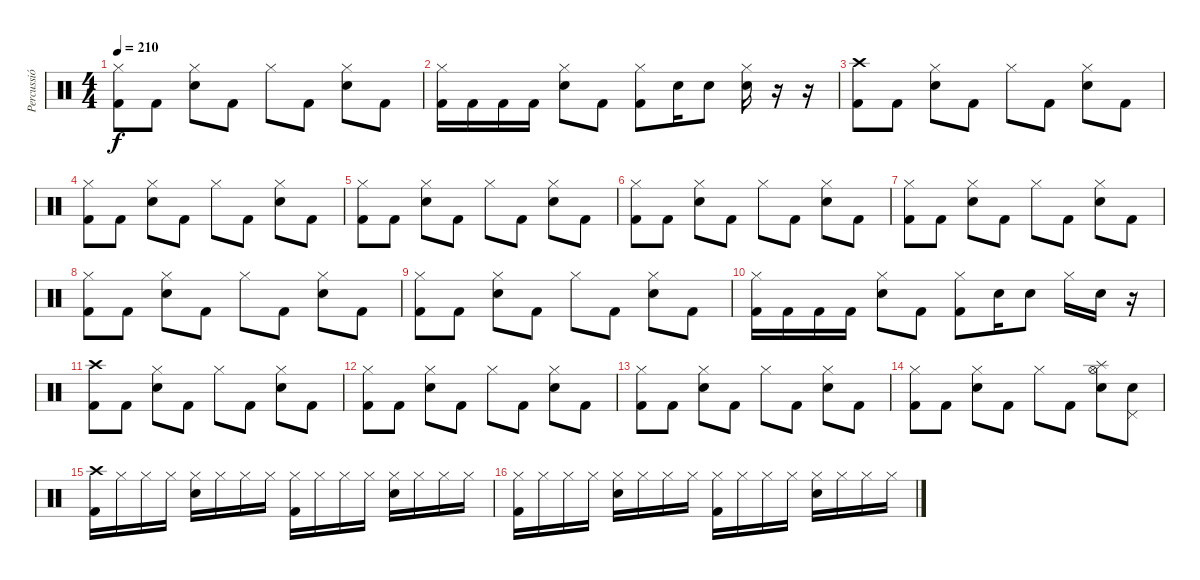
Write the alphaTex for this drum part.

\track ("Percussió" "Percussió") {instrument percussion}
\staff {score}
\articulation defaults
\ts (4 4)
\tempo 210
\clef neutral
\ks c
("Hi-Hat (closed)" "Kick (hit) 2").8{dy f} "Kick (hit) 2".8 ("Hi-Hat (closed)" "Snare (hit) 2").8 "Kick (hit) 2".8 "Hi-Hat (closed)".8 "Kick (hit) 2".8 ("Hi-Hat (closed)" "Snare (hit) 2").8 "Kick (hit) 2".8 |
("Hi-Hat (closed)" "Kick (hit) 2").16 "Kick (hit) 2".16 "Kick (hit) 2".16 "Kick (hit) 2".16 ("Hi-Hat (closed)" "Snare (hit) 2").8 "Kick (hit) 2".8 ("Hi-Hat (closed)" "Kick (hit) 2").8 "Snare (hit) 2".16 "Snare (hit) 2".8 ("Hi-Hat (closed)" "Snare (hit) 2").16 r.16 r.16 |
("Crash high (hit)" "Kick (hit) 2").8 "Kick (hit) 2".8 ("Hi-Hat (closed)" "Snare (hit) 2").8 "Kick (hit) 2".8 "Hi-Hat (closed)".8 "Kick (hit) 2".8 ("Hi-Hat (closed)" "Snare (hit) 2").8 "Kick (hit) 2".8 |
("Hi-Hat (closed)" "Kick (hit) 2").8 "Kick (hit) 2".8 ("Hi-Hat (closed)" "Snare (hit) 2").8 "Kick (hit) 2".8 "Hi-Hat (closed)".8 "Kick (hit) 2".8 ("Hi-Hat (closed)" "Snare (hit) 2").8 "Kick (hit) 2".8 |
("Hi-Hat (closed)" "Kick (hit) 2").8 "Kick (hit) 2".8 ("Hi-Hat (closed)" "Snare (hit) 2").8 "Kick (hit) 2".8 "Hi-Hat (closed)".8 "Kick (hit) 2".8 ("Hi-Hat (closed)" "Snare (hit) 2").8 "Kick (hit) 2".8 |
("Hi-Hat (closed)" "Kick (hit) 2").8 "Kick (hit) 2".8 ("Hi-Hat (closed)" "Snare (hit) 2").8 "Kick (hit) 2".8 "Hi-Hat (closed)".8 "Kick (hit) 2".8 ("Hi-Hat (closed)" "Snare (hit) 2").8 "Kick (hit) 2".8 |
("Hi-Hat (closed)" "Kick (hit) 2").8 "Kick (hit) 2".8 ("Hi-Hat (closed)" "Snare (hit) 2").8 "Kick (hit) 2".8 "Hi-Hat (closed)".8 "Kick (hit) 2".8 ("Hi-Hat (closed)" "Snare (hit) 2").8 "Kick (hit) 2".8 |
("Hi-Hat (closed)" "Kick (hit) 2").8 "Kick (hit) 2".8 ("Hi-Hat (closed)" "Snare (hit) 2").8 "Kick (hit) 2".8 "Hi-Hat (closed)".8 "Kick (hit) 2".8 ("Hi-Hat (closed)" "Snare (hit) 2").8 "Kick (hit) 2".8 |
("Hi-Hat (closed)" "Kick (hit) 2").8 "Kick (hit) 2".8 ("Hi-Hat (closed)" "Snare (hit) 2").8 "Kick (hit) 2".8 "Hi-Hat (closed)".8 "Kick (hit) 2".8 ("Hi-Hat (closed)" "Snare (hit) 2").8 "Kick (hit) 2".8 |
("Hi-Hat (closed)" "Kick (hit) 2").16 "Kick (hit) 2".16 "Kick (hit) 2".16 "Kick (hit) 2".16 ("Hi-Hat (closed)" "Snare (hit) 2").8 "Kick (hit) 2".8 ("Hi-Hat (closed)" "Kick (hit) 2").8 "Snare (hit) 2".16 "Snare (hit) 2".8 "Hi-Hat (closed)".16 "Snare (hit) 2".16 r.16 |
("Crash high (hit)" "Kick (hit) 2").8 "Kick (hit) 2".8 ("Hi-Hat (closed)" "Snare (hit) 2").8 "Kick (hit) 2".8 "Hi-Hat (closed)".8 "Kick (hit) 2".8 ("Hi-Hat (closed)" "Snare (hit) 2").8 "Kick (hit) 2".8 |
("Hi-Hat (closed)" "Kick (hit) 2").8 "Kick (hit) 2".8 ("Hi-Hat (closed)" "Snare (hit) 2").8 "Kick (hit) 2".8 "Hi-Hat (closed)".8 "Kick (hit) 2".8 ("Hi-Hat (closed)" "Snare (hit) 2").8 "Kick (hit) 2".8 |
("Hi-Hat (closed)" "Kick (hit) 2").8 "Kick (hit) 2".8 ("Hi-Hat (closed)" "Snare (hit) 2").8 "Kick (hit) 2".8 "Hi-Hat (closed)".8 "Kick (hit) 2".8 ("Hi-Hat (closed)" "Snare (hit) 2").8 "Kick (hit) 2".8 |
("Hi-Hat (closed)" "Kick (hit) 2").8 "Kick (hit) 2".8 ("Hi-Hat (closed)" "Snare (hit) 2").8 "Kick (hit) 2".8 "Hi-Hat (closed)".8 "Kick (hit) 2".8 ("Splash (hit)" "Hi-Hat (open)" "Snare (hit) 2").8 ("Pedal Hi-Hat (hit)" "Snare (hit) 2").8 |
("Crash high (hit)" "Kick (hit) 2").16 "Hi-Hat (closed)".16 "Hi-Hat (closed)".16 "Hi-Hat (closed)".16 ("Hi-Hat (closed)" "Snare (hit) 2").16 "Hi-Hat (closed)".16 "Hi-Hat (closed)".16 "Hi-Hat (closed)".16 ("Hi-Hat (closed)" "Kick (hit) 2").16 "Hi-Hat (closed)".16 "Hi-Hat (closed)".16 "Hi-Hat (closed)".16 ("Hi-Hat (closed)" "Snare (hit) 2").16 "Hi-Hat (closed)".16 "Hi-Hat (closed)".16 "Hi-Hat (closed)".16 |
("Hi-Hat (closed)" "Kick (hit) 2").16 "Hi-Hat (closed)".16 "Hi-Hat (closed)".16 "Hi-Hat (closed)".16 ("Hi-Hat (closed)" "Snare (hit) 2").16 "Hi-Hat (closed)".16 "Hi-Hat (closed)".16 "Hi-Hat (closed)".16 ("Hi-Hat (closed)" "Kick (hit) 2").16 "Hi-Hat (closed)".16 "Hi-Hat (closed)".16 "Hi-Hat (closed)".16 ("Hi-Hat (closed)" "Snare (hit) 2").16 "Hi-Hat (closed)".16 "Hi-Hat (closed)".16 "Hi-Hat (closed)".16
